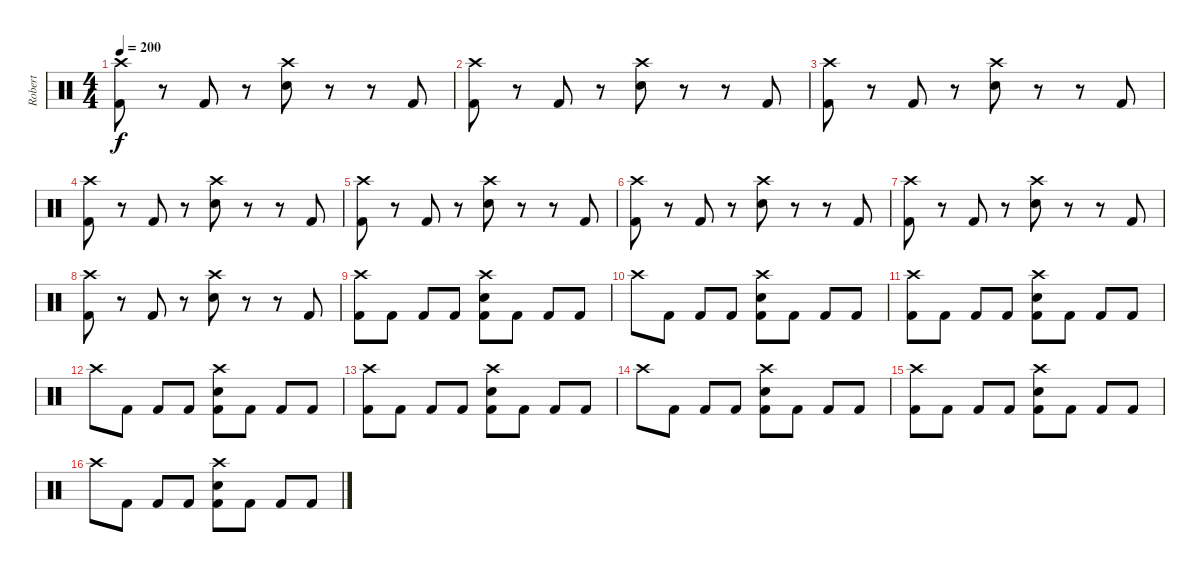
\track ("Robert" "Robert") {instrument percussion}
\staff {score}
\articulation defaults
\ts (4 4)
\tempo 200
\clef neutral
\ks c
("Crash high (hit)" "Kick (hit) 2").8{dy f} r.8 "Kick (hit) 2".8 r.8 ("Crash high (hit)" "Electric Snare (hit)").8 r.8 r.8 "Kick (hit) 2".8 |
("Crash high (hit)" "Kick (hit) 2").8 r.8 "Kick (hit) 2".8 r.8 ("Crash high (hit)" "Electric Snare (hit)").8 r.8 r.8 "Kick (hit) 2".8 |
("Crash high (hit)" "Kick (hit) 2").8 r.8 "Kick (hit) 2".8 r.8 ("Crash high (hit)" "Electric Snare (hit)").8 r.8 r.8 "Kick (hit) 2".8 |
("Crash high (hit)" "Kick (hit) 2").8 r.8 "Kick (hit) 2".8 r.8 ("Crash high (hit)" "Electric Snare (hit)").8 r.8 r.8 "Kick (hit) 2".8 |
("Crash high (hit)" "Kick (hit) 2").8 r.8 "Kick (hit) 2".8 r.8 ("Crash high (hit)" "Electric Snare (hit)").8 r.8 r.8 "Kick (hit) 2".8 |
("Crash high (hit)" "Kick (hit) 2").8 r.8 "Kick (hit) 2".8 r.8 ("Crash high (hit)" "Electric Snare (hit)").8 r.8 r.8 "Kick (hit) 2".8 |
("Crash high (hit)" "Kick (hit) 2").8 r.8 "Kick (hit) 2".8 r.8 ("Crash high (hit)" "Electric Snare (hit)").8 r.8 r.8 "Kick (hit) 2".8 |
("Crash high (hit)" "Kick (hit) 2").8 r.8 "Kick (hit) 2".8 r.8 ("Crash high (hit)" "Electric Snare (hit)").8 r.8 r.8 "Kick (hit) 2".8 |
("Crash high (hit)" "Kick (hit) 2").8{volume 12} "Kick (hit) 2".8 "Kick (hit) 2".8 "Kick (hit) 2".8 ("Crash high (hit)" "Electric Snare (hit)" "Kick (hit) 2").8 "Kick (hit) 2".8 "Kick (hit) 2".8 "Kick (hit) 2".8 |
"Crash high (hit)".8 "Kick (hit) 2".8 "Kick (hit) 2".8 "Kick (hit) 2".8 ("Crash high (hit)" "Electric Snare (hit)" "Kick (hit) 2").8 "Kick (hit) 2".8 "Kick (hit) 2".8 "Kick (hit) 2".8 |
("Crash high (hit)" "Kick (hit) 2").8 "Kick (hit) 2".8 "Kick (hit) 2".8 "Kick (hit) 2".8 ("Crash high (hit)" "Electric Snare (hit)" "Kick (hit) 2").8 "Kick (hit) 2".8 "Kick (hit) 2".8 "Kick (hit) 2".8 |
"Crash high (hit)".8 "Kick (hit) 2".8 "Kick (hit) 2".8 "Kick (hit) 2".8 ("Crash high (hit)" "Electric Snare (hit)" "Kick (hit) 2").8 "Kick (hit) 2".8 "Kick (hit) 2".8 "Kick (hit) 2".8 |
("Crash high (hit)" "Kick (hit) 2").8 "Kick (hit) 2".8 "Kick (hit) 2".8 "Kick (hit) 2".8 ("Crash high (hit)" "Electric Snare (hit)" "Kick (hit) 2").8 "Kick (hit) 2".8 "Kick (hit) 2".8 "Kick (hit) 2".8 |
"Crash high (hit)".8 "Kick (hit) 2".8 "Kick (hit) 2".8 "Kick (hit) 2".8 ("Crash high (hit)" "Electric Snare (hit)" "Kick (hit) 2").8 "Kick (hit) 2".8 "Kick (hit) 2".8 "Kick (hit) 2".8 |
("Crash high (hit)" "Kick (hit) 2").8 "Kick (hit) 2".8 "Kick (hit) 2".8 "Kick (hit) 2".8 ("Crash high (hit)" "Electric Snare (hit)" "Kick (hit) 2").8 "Kick (hit) 2".8 "Kick (hit) 2".8 "Kick (hit) 2".8 |
"Crash high (hit)".8 "Kick (hit) 2".8 "Kick (hit) 2".8 "Kick (hit) 2".8 ("Crash high (hit)" "Electric Snare (hit)" "Kick (hit) 2").8 "Kick (hit) 2".8 "Kick (hit) 2".8 "Kick (hit) 2".8
